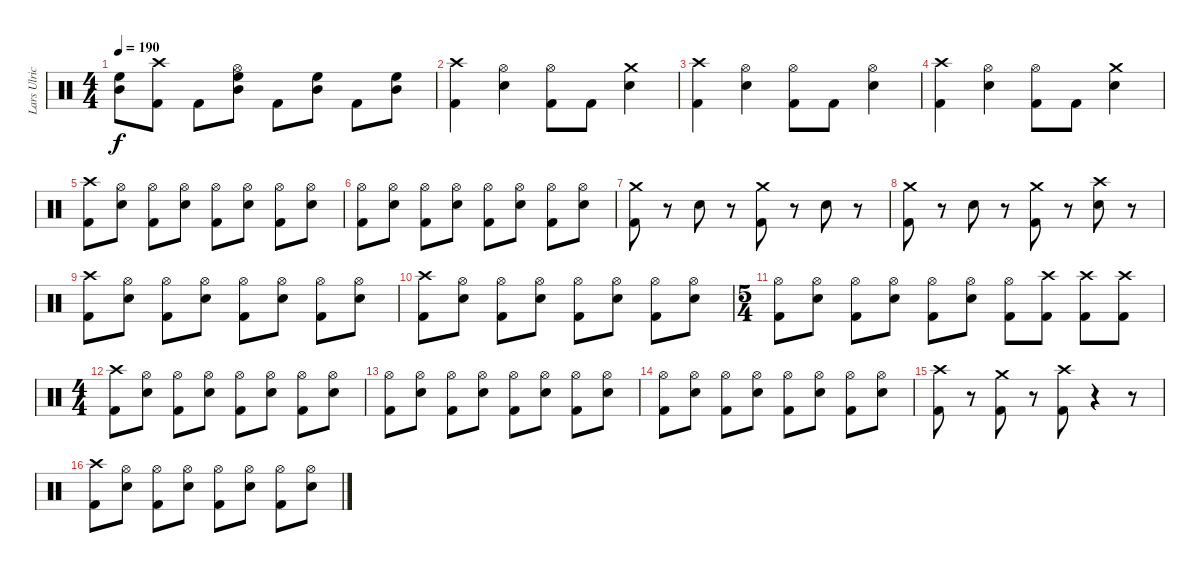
\track ("Lars Ulrich" "Lars Ulric") {instrument percussion}
\staff {score}
\articulation defaults
\ts (4 4)
\tempo 190
\clef neutral
\ks c
("Mid Tom (hit)" "High Floor Tom (hit)").8{dy f} ("Crash high (hit)" "Kick (hit) 2").8 "Kick (hit) 2".8 ("Hi-Hat (open)" "Mid Tom (hit)" "High Floor Tom (hit)").8 "Kick (hit) 2".8 ("Mid Tom (hit)" "High Floor Tom (hit)").8 "Kick (hit) 2".8 ("Mid Tom (hit)" "High Floor Tom (hit)").8 |
("Crash high (hit)" "Kick (hit) 2").4 ("Hi-Hat (open)" "Snare (hit) 2").4 ("Hi-Hat (open)" "Kick (hit) 2").8 "Kick (hit) 2".8 ("Crash medium (hit)" "Snare (hit) 2").4 |
("Crash high (hit)" "Kick (hit) 2").4 ("Hi-Hat (open)" "Snare (hit) 2").4 ("Hi-Hat (open)" "Kick (hit) 2").8 "Kick (hit) 2".8 ("Hi-Hat (open)" "Snare (hit) 2").4 |
("Crash high (hit)" "Kick (hit) 2").4 ("Hi-Hat (open)" "Snare (hit) 2").4 ("Hi-Hat (open)" "Kick (hit) 2").8 "Kick (hit) 2".8 ("Crash medium (hit)" "Snare (hit) 2").4 |
("Crash high (hit)" "Kick (hit) 2").8 ("Hi-Hat (open)" "Snare (hit) 2").8 ("Hi-Hat (open)" "Kick (hit) 2").8 ("Hi-Hat (open)" "Snare (hit) 2").8 ("Hi-Hat (open)" "Kick (hit) 2").8 ("Hi-Hat (open)" "Snare (hit) 2").8 ("Hi-Hat (open)" "Kick (hit) 2").8 ("Hi-Hat (open)" "Snare (hit) 2").8 |
("Hi-Hat (open)" "Kick (hit) 2").8 ("Hi-Hat (open)" "Snare (hit) 2").8 ("Hi-Hat (open)" "Kick (hit) 2").8 ("Hi-Hat (open)" "Snare (hit) 2").8 ("Hi-Hat (open)" "Kick (hit) 2").8 ("Hi-Hat (open)" "Snare (hit) 2").8 ("Hi-Hat (open)" "Kick (hit) 2").8 ("Hi-Hat (open)" "Snare (hit) 2").8 |
("Crash medium (hit)" "Kick (hit) 2").8 r.8 "Snare (hit) 2".8 r.8 ("Crash medium (hit)" "Kick (hit) 2").8 r.8 "Snare (hit) 2".8 r.8 |
("Crash medium (hit)" "Kick (hit) 2").8 r.8 "Snare (hit) 2".8 r.8 ("Crash medium (hit)" "Kick (hit) 2").8 r.8 ("Crash high (hit)" "Snare (hit) 2").8 r.8 |
("Crash high (hit)" "Kick (hit) 2").8 ("Hi-Hat (open)" "Snare (hit) 2").8 ("Hi-Hat (open)" "Kick (hit) 2").8 ("Hi-Hat (open)" "Snare (hit) 2").8 ("Hi-Hat (open)" "Kick (hit) 2").8 ("Hi-Hat (open)" "Snare (hit) 2").8 ("Hi-Hat (open)" "Kick (hit) 2").8 ("Hi-Hat (open)" "Snare (hit) 2").8 |
("Crash high (hit)" "Kick (hit) 2").8 ("Hi-Hat (open)" "Snare (hit) 2").8 ("Hi-Hat (open)" "Kick (hit) 2").8 ("Hi-Hat (open)" "Snare (hit) 2").8 ("Hi-Hat (open)" "Kick (hit) 2").8 ("Hi-Hat (open)" "Snare (hit) 2").8 ("Hi-Hat (open)" "Kick (hit) 2").8 ("Hi-Hat (open)" "Snare (hit) 2").8 |
\ts (5 4)
("Hi-Hat (open)" "Kick (hit) 2").8 ("Hi-Hat (open)" "Snare (hit) 2").8 ("Hi-Hat (open)" "Kick (hit) 2").8 ("Hi-Hat (open)" "Snare (hit) 2").8 ("Hi-Hat (open)" "Kick (hit) 2").8 ("Hi-Hat (open)" "Snare (hit) 2").8 ("Hi-Hat (open)" "Kick (hit) 2").8 ("Crash high (hit)" "Kick (hit) 2").8 ("Crash high (hit)" "Kick (hit) 2").8 ("Crash high (hit)" "Kick (hit) 2").8 |
\ts (4 4)
("Crash high (hit)" "Kick (hit) 2").8 ("Hi-Hat (open)" "Snare (hit) 2").8 ("Hi-Hat (open)" "Kick (hit) 2").8 ("Hi-Hat (open)" "Snare (hit) 2").8 ("Hi-Hat (open)" "Kick (hit) 2").8 ("Hi-Hat (open)" "Snare (hit) 2").8 ("Hi-Hat (open)" "Kick (hit) 2").8 ("Hi-Hat (open)" "Snare (hit) 2").8 |
("Hi-Hat (open)" "Kick (hit) 2").8 ("Hi-Hat (open)" "Snare (hit) 2").8 ("Hi-Hat (open)" "Kick (hit) 2").8 ("Hi-Hat (open)" "Snare (hit) 2").8 ("Hi-Hat (open)" "Kick (hit) 2").8 ("Hi-Hat (open)" "Snare (hit) 2").8 ("Hi-Hat (open)" "Kick (hit) 2").8 ("Hi-Hat (open)" "Snare (hit) 2").8 |
("Hi-Hat (open)" "Kick (hit) 2").8 ("Hi-Hat (open)" "Snare (hit) 2").8 ("Hi-Hat (open)" "Kick (hit) 2").8 ("Hi-Hat (open)" "Snare (hit) 2").8 ("Hi-Hat (open)" "Kick (hit) 2").8 ("Hi-Hat (open)" "Snare (hit) 2").8 ("Hi-Hat (open)" "Kick (hit) 2").8 ("Hi-Hat (open)" "Snare (hit) 2").8 |
("Crash high (hit)" "Kick (hit) 2").8 r.8 ("Crash medium (hit)" "Kick (hit) 2").8 r.8 ("Crash high (hit)" "Kick (hit) 2").8 r.4 r.8 |
("Crash high (hit)" "Kick (hit) 2").8 ("Hi-Hat (open)" "Snare (hit) 2").8 ("Hi-Hat (open)" "Kick (hit) 2").8 ("Hi-Hat (open)" "Snare (hit) 2").8 ("Hi-Hat (open)" "Kick (hit) 2").8 ("Hi-Hat (open)" "Snare (hit) 2").8 ("Hi-Hat (open)" "Kick (hit) 2").8 ("Hi-Hat (open)" "Snare (hit) 2").8
